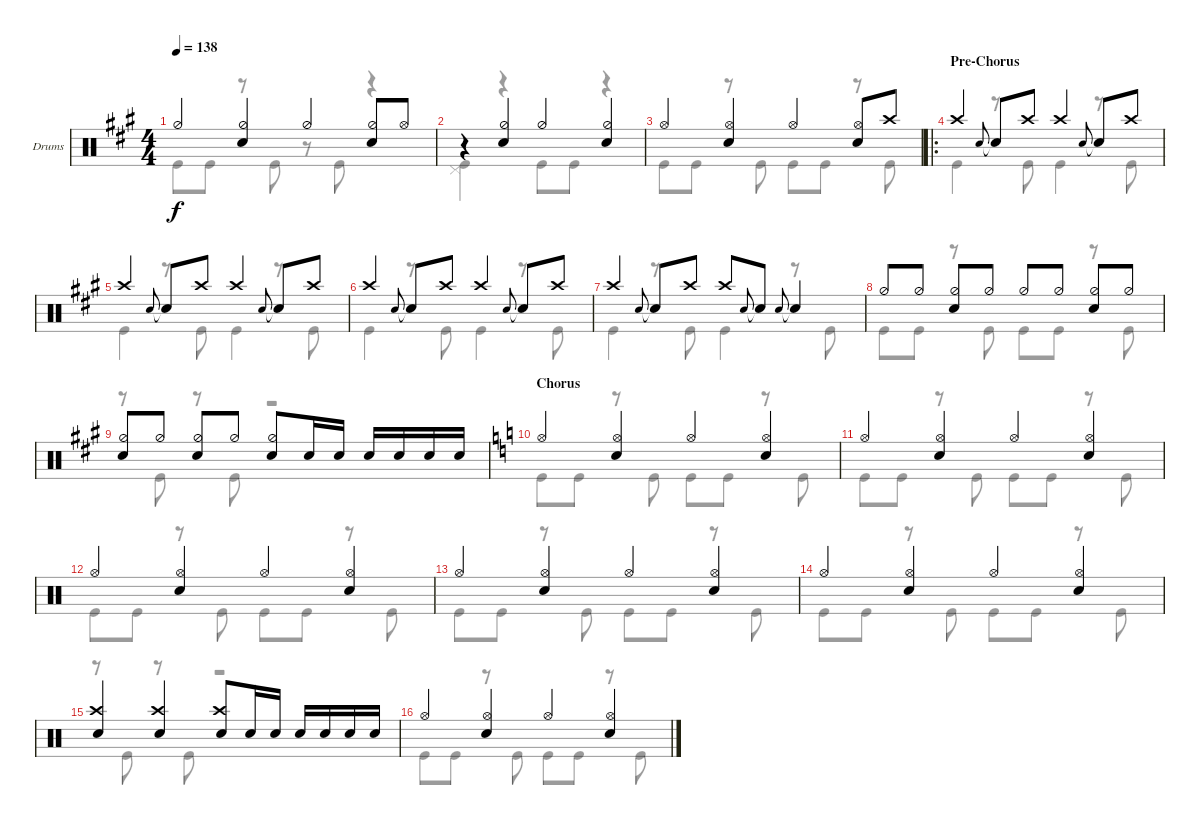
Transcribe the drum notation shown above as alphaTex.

\defaultSystemsLayout 4
\bracketExtendMode groupsimilarinstruments
\firstSystemTrackNameOrientation horizontal
\otherSystemsTrackNameOrientation horizontal
\track ("Drumkit" "Drums") {instrument percussion}
\staff {score}
\articulation defaults
\voice
\ts (4 4)
\tempo 138
\clef neutral
\ks a "Hi-Hat (half)".4{dy f}
("Snare (hit) 2" "Hi-Hat (half)").4 "Hi-Hat (half)".4 ("Snare (hit) 2" "Hi-Hat (half)").8 "Hi-Hat (open)".8 |
r.4 ("Snare (hit) 2" "Hi-Hat (half)").4 "Hi-Hat (half)".4 ("Snare (hit) 2" "Hi-Hat (half)").4 |
"Hi-Hat (open)".4 ("Hi-Hat (open)" "Snare (hit) 2").4 "Hi-Hat (open)".4 ("Hi-Hat (open)" "Snare (hit) 2").8 "Crash high (hit)".8 |
\ro
\section ("" "Pre-Chorus")
"Crash high (hit)".4 "Snare (hit) 2".8{gr onbeat} "Snare (hit) 2"{t}.8 "Crash high (hit)".8 "Crash high (hit)".4 "Snare (hit) 2".8{gr onbeat} "Snare (hit) 2"{t}.8 "Crash high (hit)".8 |
"Crash high (hit)".4 "Snare (hit) 2".8{gr onbeat} "Snare (hit) 2"{t}.8 "Crash high (hit)".8 "Crash high (hit)".4 "Snare (hit) 2".8{gr onbeat} "Snare (hit) 2"{t}.8 "Crash high (hit)".8 |
"Crash high (hit)".4 "Snare (hit) 2".8{gr onbeat} "Snare (hit) 2"{t}.8 "Crash high (hit)".8 "Crash high (hit)".4 "Snare (hit) 2".8{gr onbeat} "Snare (hit) 2"{t}.8 "Crash high (hit)".8 |
"Crash high (hit)".4 "Snare (hit) 2".8{gr onbeat} "Snare (hit) 2"{t}.8 "Crash high (hit)".8 "Crash high (hit)".8 "Snare (hit) 2".8{gr onbeat} "Snare (hit) 2"{t}.8 "Snare (hit) 2".8{gr onbeat} "Snare (hit) 2"{t}.4 |
"Hi-Hat (half)".8 "Hi-Hat (half)".8 ("Hi-Hat (half)" "Snare (hit) 2").8 "Hi-Hat (half)".8 "Hi-Hat (half)".8 "Hi-Hat (half)".8 ("Hi-Hat (half)" "Snare (hit) 2").8 "Hi-Hat (half)".8 |
("Hi-Hat (half)" "Snare (hit) 2").8 "Hi-Hat (half)".8 ("Hi-Hat (half)" "Snare (hit) 2").8 "Hi-Hat (half)".8 ("Hi-Hat (half)" "Snare (hit) 2").8 "Snare (hit) 2".16 "Snare (hit) 2".16 "Snare (hit) 2".16 "Snare (hit) 2".16 "Snare (hit) 2".16 "Snare (hit) 2".16 |
\section ("" "Chorus")
\ks c "Hi-Hat (open)".4
("Hi-Hat (open)" "Snare (hit) 2").4 "Hi-Hat (open)".4 ("Hi-Hat (open)" "Snare (hit) 2").4 |
"Hi-Hat (open)".4 ("Hi-Hat (open)" "Snare (hit) 2").4 "Hi-Hat (open)".4 ("Hi-Hat (open)" "Snare (hit) 2").4 |
"Hi-Hat (open)".4 ("Hi-Hat (open)" "Snare (hit) 2").4 "Hi-Hat (open)".4 ("Hi-Hat (open)" "Snare (hit) 2").4 |
"Hi-Hat (open)".4 ("Hi-Hat (open)" "Snare (hit) 2").4 "Hi-Hat (open)".4 ("Hi-Hat (open)" "Snare (hit) 2").4 |
"Hi-Hat (open)".4 ("Hi-Hat (open)" "Snare (hit) 2").4 "Hi-Hat (open)".4 ("Hi-Hat (open)" "Snare (hit) 2").4 |
("Crash high (hit)" "Snare (hit) 2").4 ("Crash high (hit)" "Snare (hit) 2").4 ("Crash high (hit)" "Snare (hit) 2").8 "Snare (hit) 2".16 "Snare (hit) 2".16 "Snare (hit) 2".16 "Snare (hit) 2".16 "Snare (hit) 2".16 "Snare (hit) 2".16 |
"Hi-Hat (open)".4 ("Hi-Hat (open)" "Snare (hit) 2").4 "Hi-Hat (open)".4 ("Hi-Hat (open)" "Snare (hit) 2").4
\voice
\clef neutral
\ottava regular
\simile none
\ks a "Kick (hit)".8{dy f} "Kick (hit)".8
r.8 "Kick (hit)".8 r.8 "Kick (hit)".8 r.4 |
("Kick (hit)" "Pedal Hi-Hat (hit)").4 r.4 "Kick (hit)".8 "Kick (hit)".8 r.4 |
"Kick (hit)".8 "Kick (hit)".8 r.8 "Kick (hit)".8 "Kick (hit)".8 "Kick (hit)".8 r.8 "Kick (hit)".8 |
"Kick (hit)".4 r.8 "Kick (hit)".8 "Kick (hit)".4 r.8 "Kick (hit)".8 |
"Kick (hit)".4 r.8 "Kick (hit)".8 "Kick (hit)".4 r.8 "Kick (hit)".8 |
"Kick (hit)".4 r.8 "Kick (hit)".8 "Kick (hit)".4 r.8 "Kick (hit)".8 |
"Kick (hit)".4 r.8 "Kick (hit)".8 "Kick (hit)".4 r.8 "Kick (hit)".8 |
"Kick (hit)".8 "Kick (hit)".8 r.8 "Kick (hit)".8 "Kick (hit)".8 "Kick (hit)".8 r.8 "Kick (hit)".8 |
r.8 "Kick (hit)".8 r.8 "Kick (hit)".8 r.2 |
\ks c "Kick (hit)".8 "Kick (hit)".8
r.8 "Kick (hit)".8 "Kick (hit)".8 "Kick (hit)".8 r.8 "Kick (hit)".8 |
"Kick (hit)".8 "Kick (hit)".8 r.8 "Kick (hit)".8 "Kick (hit)".8 "Kick (hit)".8 r.8 "Kick (hit)".8 |
"Kick (hit)".8 "Kick (hit)".8 r.8 "Kick (hit)".8 "Kick (hit)".8 "Kick (hit)".8 r.8 "Kick (hit)".8 |
"Kick (hit)".8 "Kick (hit)".8 r.8 "Kick (hit)".8 "Kick (hit)".8 "Kick (hit)".8 r.8 "Kick (hit)".8 |
"Kick (hit)".8 "Kick (hit)".8 r.8 "Kick (hit)".8 "Kick (hit)".8 "Kick (hit)".8 r.8 "Kick (hit)".8 |
r.8 "Kick (hit)".8 r.8 "Kick (hit)".8 r.2 |
"Kick (hit)".8 "Kick (hit)".8 r.8 "Kick (hit)".8 "Kick (hit)".8 "Kick (hit)".8 r.8 "Kick (hit)".8
